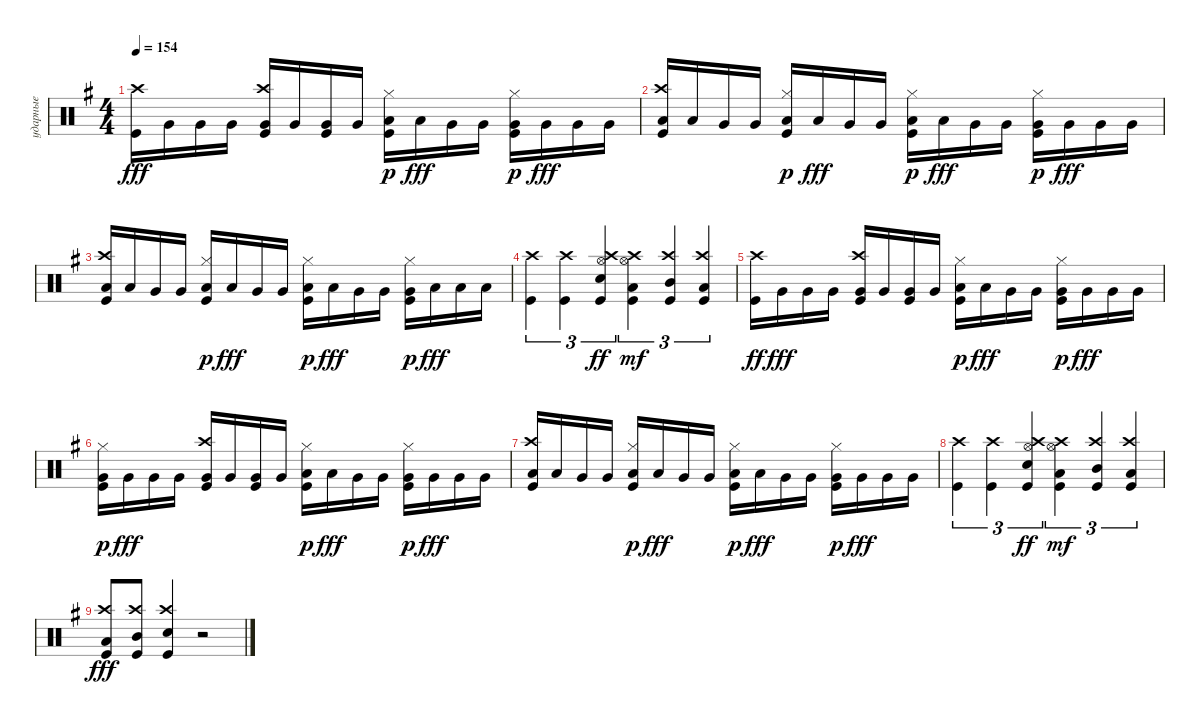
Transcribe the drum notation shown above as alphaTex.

\track ("ударные" "ударные") {instrument percussion}
\staff {score}
\articulation defaults
\ts (4 4)
\tempo 154
\clef neutral
\ks eminor
("Kick (hit)" "Crash high (hit)").16{dy fff} "Very Low Tom (hit)".16 "Very Low Tom (hit)".16 "Very Low Tom (hit)".16 ("Kick (hit)" "Very Low Tom (hit)" "Crash high (hit)").16 "Very Low Tom (hit)".16 ("Kick (hit)" "Very Low Tom (hit)").16 "Very Low Tom (hit)".16 ("Low Floor Tom (hit)" "Kick (hit)" "Hi-Hat (closed)").16{dy p} "Low Floor Tom (hit)".16{dy fff} "Very Low Tom (hit)".16 "Very Low Tom (hit)".16 ("Very Low Tom (hit)" "Kick (hit)" "Hi-Hat (closed)").16{dy p} "Very Low Tom (hit)".16{dy fff} "Very Low Tom (hit)".16 "Very Low Tom (hit)".16 |
("Low Tom (hit)" "Kick (hit)" "Crash high (hit)").16 "Low Tom (hit)".16 "Very Low Tom (hit)".16 "Very Low Tom (hit)".16 ("Low Tom (hit)" "Kick (hit)" "Hi-Hat (closed)").16{dy p} "Low Tom (hit)".16{dy fff} "Very Low Tom (hit)".16 "Very Low Tom (hit)".16 ("Low Floor Tom (hit)" "Kick (hit)" "Hi-Hat (closed)").16{dy p} "Low Floor Tom (hit)".16{dy fff} "Very Low Tom (hit)".16 "Very Low Tom (hit)".16 ("Very Low Tom (hit)" "Kick (hit)" "Hi-Hat (closed)").16{dy p} "Very Low Tom (hit)".16{dy fff} "Very Low Tom (hit)".16 "Very Low Tom (hit)".16 |
("Low Tom (hit)" "Kick (hit)" "Crash high (hit)").16 "Low Tom (hit)".16 "Very Low Tom (hit)".16 "Very Low Tom (hit)".16 ("Low Tom (hit)" "Kick (hit)" "Hi-Hat (closed)").16{dy p} "Low Tom (hit)".16{dy fff} "Very Low Tom (hit)".16 "Very Low Tom (hit)".16 ("Low Floor Tom (hit)" "Kick (hit)" "Hi-Hat (closed)").16{dy p} "Low Floor Tom (hit)".16{dy fff} "Very Low Tom (hit)".16 "Very Low Tom (hit)".16 ("Very Low Tom (hit)" "Kick (hit)" "Hi-Hat (closed)").16{dy p} "Low Tom (hit)".16{dy fff} "Low Tom (hit)".16 "Low Tom (hit)".16 |
("Kick (hit)" "Crash high (hit)").4{tu (3 2)} ("Kick (hit)" "Crash high (hit)").4{tu (3 2)} ("Kick (hit)" "Crash high (hit)" "Hi-Hat (open)" "Snare (hit) 2").4{tu (3 2) dy ff} ("Kick (hit)" "Low Tom (hit)" "Crash high (hit)" "Hi-Hat (open)").4{tu (3 2) dy mf} ("Kick (hit)" "Mid Tom (hit)" "Crash high (hit)").4{tu (3 2)} ("Kick (hit)" "Low Tom (hit)" "Crash high (hit)").4{tu (3 2)} |
("Kick (hit)" "Crash high (hit)").16{dy ff} "Very Low Tom (hit)".16{dy fff} "Very Low Tom (hit)".16 "Very Low Tom (hit)".16 ("Kick (hit)" "Very Low Tom (hit)" "Crash high (hit)").16 "Very Low Tom (hit)".16 ("Kick (hit)" "Very Low Tom (hit)").16 "Very Low Tom (hit)".16 ("Low Floor Tom (hit)" "Kick (hit)" "Hi-Hat (closed)").16{dy p} "Low Floor Tom (hit)".16{dy fff} "Very Low Tom (hit)".16 "Very Low Tom (hit)".16 ("Very Low Tom (hit)" "Kick (hit)" "Hi-Hat (closed)").16{dy p} "Very Low Tom (hit)".16{dy fff} "Very Low Tom (hit)".16 "Very Low Tom (hit)".16 |
("Very Low Tom (hit)" "Kick (hit)" "Hi-Hat (closed)").16{dy p} "Very Low Tom (hit)".16{dy fff} "Very Low Tom (hit)".16 "Very Low Tom (hit)".16 ("Kick (hit)" "Very Low Tom (hit)" "Crash high (hit)").16 "Very Low Tom (hit)".16 ("Kick (hit)" "Very Low Tom (hit)").16 "Very Low Tom (hit)".16 ("Low Floor Tom (hit)" "Kick (hit)" "Hi-Hat (closed)").16{dy p} "Low Floor Tom (hit)".16{dy fff} "Very Low Tom (hit)".16 "Very Low Tom (hit)".16 ("Very Low Tom (hit)" "Kick (hit)" "Hi-Hat (closed)").16{dy p} "Very Low Tom (hit)".16{dy fff} "Very Low Tom (hit)".16 "Very Low Tom (hit)".16 |
("Low Tom (hit)" "Kick (hit)" "Crash high (hit)").16 "Low Tom (hit)".16 "Very Low Tom (hit)".16 "Very Low Tom (hit)".16 ("Low Tom (hit)" "Kick (hit)" "Hi-Hat (closed)").16{dy p} "Low Tom (hit)".16{dy fff} "Very Low Tom (hit)".16 "Very Low Tom (hit)".16 ("Low Floor Tom (hit)" "Kick (hit)" "Hi-Hat (closed)").16{dy p} "Low Floor Tom (hit)".16{dy fff} "Very Low Tom (hit)".16 "Very Low Tom (hit)".16 ("Very Low Tom (hit)" "Kick (hit)" "Hi-Hat (closed)").16{dy p} "Very Low Tom (hit)".16{dy fff} "Very Low Tom (hit)".16 "Very Low Tom (hit)".16 |
("Kick (hit)" "Crash high (hit)").4{tu (3 2)} ("Kick (hit)" "Crash high (hit)").4{tu (3 2)} ("Kick (hit)" "Crash high (hit)" "Hi-Hat (open)" "Snare (hit) 2").4{tu (3 2) dy ff} ("Kick (hit)" "Low Tom (hit)" "Crash high (hit)" "Hi-Hat (open)").4{tu (3 2) dy mf} ("Kick (hit)" "Mid Tom (hit)" "Crash high (hit)").4{tu (3 2)} ("Kick (hit)" "Low Tom (hit)" "Crash high (hit)").4{tu (3 2)} |
("Low Tom (hit)" "Crash high (hit)" "Kick (hit)").8{dy fff} ("Mid Tom (hit)" "Crash high (hit)" "Kick (hit)").8 ("Kick (hit)" "Snare (hit) 2" "Crash high (hit)").4 r.2
